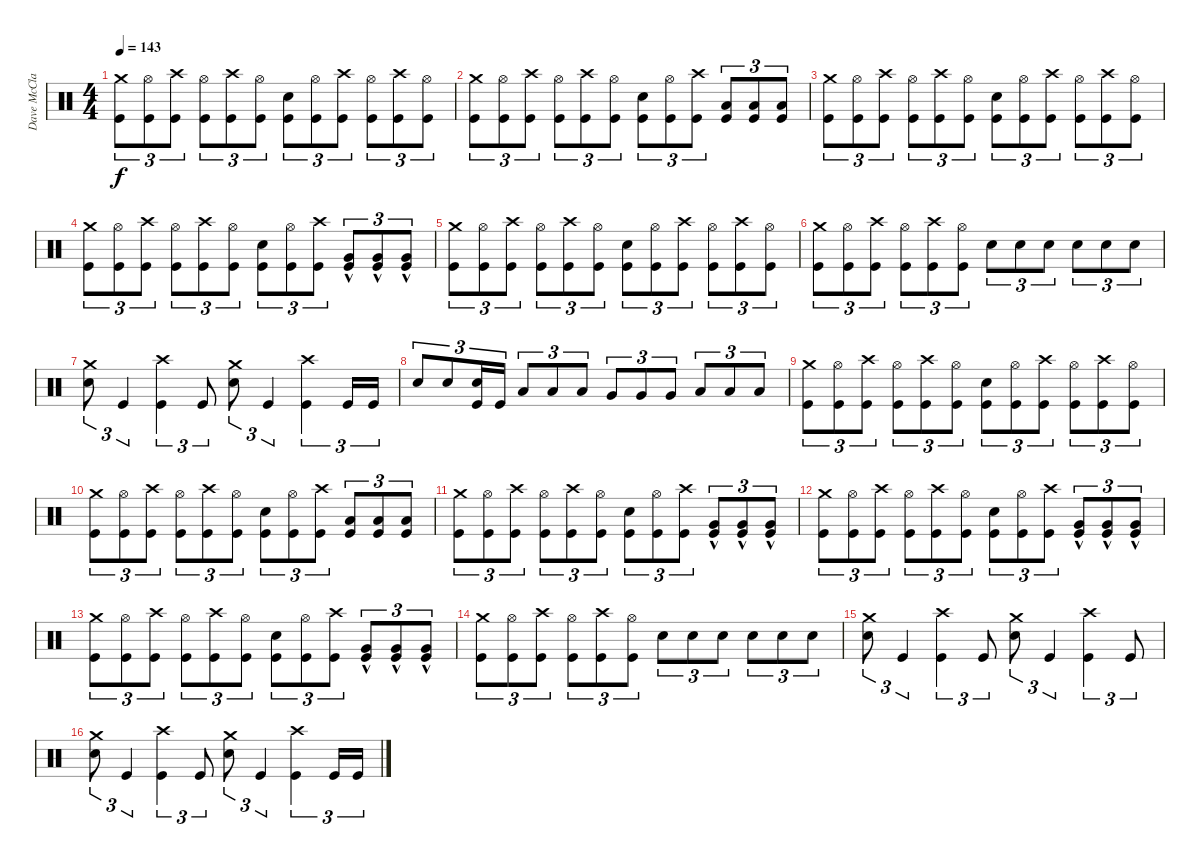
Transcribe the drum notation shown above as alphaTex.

\track ("Dave McClaine" "Dave McCla") {instrument percussion}
\staff {score}
\articulation defaults
\ts (4 4)
\tempo 143
\clef neutral
\ks c
("Kick (hit)" "Crash medium (hit)").8{tu (3 2) dy f} ("Kick (hit)" "Hi-Hat (open)").8{tu (3 2)} ("Kick (hit)" "Crash high (hit)").8{tu (3 2)} ("Kick (hit)" "Hi-Hat (open)").8{tu (3 2)} ("Kick (hit)" "Crash high (hit)").8{tu (3 2)} ("Kick (hit)" "Hi-Hat (open)").8{tu (3 2)} ("Kick (hit)" "Snare (hit) 2").8{tu (3 2)} ("Kick (hit)" "Hi-Hat (open)").8{tu (3 2)} ("Kick (hit)" "Crash high (hit)").8{tu (3 2)} ("Kick (hit)" "Hi-Hat (open)").8{tu (3 2)} ("Kick (hit)" "Crash high (hit)").8{tu (3 2)} ("Kick (hit)" "Hi-Hat (open)").8{tu (3 2)} |
("Kick (hit)" "Crash medium (hit)").8{tu (3 2)} ("Kick (hit)" "Hi-Hat (open)").8{tu (3 2)} ("Kick (hit)" "Crash high (hit)").8{tu (3 2)} ("Kick (hit)" "Hi-Hat (open)").8{tu (3 2)} ("Kick (hit)" "Crash high (hit)").8{tu (3 2)} ("Kick (hit)" "Hi-Hat (open)").8{tu (3 2)} ("Kick (hit)" "Snare (hit) 2").8{tu (3 2)} ("Kick (hit)" "Hi-Hat (open)").8{tu (3 2)} ("Kick (hit)" "Crash high (hit)").8{tu (3 2)} ("Kick (hit)" "Low Tom (hit)").8{tu (3 2)} ("Kick (hit)" "Low Tom (hit)").8{tu (3 2)} ("Kick (hit)" "Low Tom (hit)").8{tu (3 2)} |
("Kick (hit)" "Crash medium (hit)").8{tu (3 2)} ("Kick (hit)" "Hi-Hat (open)").8{tu (3 2)} ("Kick (hit)" "Crash high (hit)").8{tu (3 2)} ("Kick (hit)" "Hi-Hat (open)").8{tu (3 2)} ("Kick (hit)" "Crash high (hit)").8{tu (3 2)} ("Kick (hit)" "Hi-Hat (open)").8{tu (3 2)} ("Kick (hit)" "Snare (hit) 2").8{tu (3 2)} ("Kick (hit)" "Hi-Hat (open)").8{tu (3 2)} ("Kick (hit)" "Crash high (hit)").8{tu (3 2)} ("Kick (hit)" "Hi-Hat (open)").8{tu (3 2)} ("Kick (hit)" "Crash high (hit)").8{tu (3 2)} ("Kick (hit)" "Hi-Hat (open)").8{tu (3 2)} |
("Kick (hit)" "Crash medium (hit)").8{tu (3 2)} ("Kick (hit)" "Hi-Hat (open)").8{tu (3 2)} ("Kick (hit)" "Crash high (hit)").8{tu (3 2)} ("Kick (hit)" "Hi-Hat (open)").8{tu (3 2)} ("Kick (hit)" "Crash high (hit)").8{tu (3 2)} ("Kick (hit)" "Hi-Hat (open)").8{tu (3 2)} ("Kick (hit)" "Snare (hit) 2").8{tu (3 2)} ("Kick (hit)" "Hi-Hat (open)").8{tu (3 2)} ("Kick (hit)" "Crash high (hit)").8{tu (3 2)} ("Kick (hit)" "Very Low Tom (hit)"{hac}).8{tu (3 2)} ("Kick (hit)" "Very Low Tom (hit)"{hac}).8{tu (3 2)} ("Kick (hit)" "Very Low Tom (hit)"{hac}).8{tu (3 2)} |
("Kick (hit)" "Crash medium (hit)").8{tu (3 2)} ("Kick (hit)" "Hi-Hat (open)").8{tu (3 2)} ("Kick (hit)" "Crash high (hit)").8{tu (3 2)} ("Kick (hit)" "Hi-Hat (open)").8{tu (3 2)} ("Kick (hit)" "Crash high (hit)").8{tu (3 2)} ("Kick (hit)" "Hi-Hat (open)").8{tu (3 2)} ("Kick (hit)" "Snare (hit) 2").8{tu (3 2)} ("Kick (hit)" "Hi-Hat (open)").8{tu (3 2)} ("Kick (hit)" "Crash high (hit)").8{tu (3 2)} ("Kick (hit)" "Hi-Hat (open)").8{tu (3 2)} ("Kick (hit)" "Crash high (hit)").8{tu (3 2)} ("Kick (hit)" "Hi-Hat (open)").8{tu (3 2)} |
("Kick (hit)" "Crash medium (hit)").8{tu (3 2)} ("Kick (hit)" "Hi-Hat (open)").8{tu (3 2)} ("Kick (hit)" "Crash high (hit)").8{tu (3 2)} ("Kick (hit)" "Hi-Hat (open)").8{tu (3 2)} ("Kick (hit)" "Crash high (hit)").8{tu (3 2)} ("Kick (hit)" "Hi-Hat (open)").8{tu (3 2)} "Snare (hit) 2".8{tu (3 2)} "Snare (hit) 2".8{tu (3 2)} "Snare (hit) 2".8{tu (3 2)} "Snare (hit) 2".8{tu (3 2)} "Snare (hit) 2".8{tu (3 2)} "Snare (hit) 2".8{tu (3 2)} |
("Snare (hit) 2" "Crash medium (hit)").8{tu (3 2)} "Kick (hit)".4{tu (3 2)} ("Kick (hit)" "Crash high (hit)").4{tu (3 2)} "Kick (hit)".8{tu (3 2)} ("Snare (hit) 2" "Crash medium (hit)").8{tu (3 2)} "Kick (hit)".4{tu (3 2)} ("Kick (hit)" "Crash high (hit)").4{tu (3 2)} "Kick (hit)".16{tu (3 2)} "Kick (hit)".16{tu (3 2)} |
"Snare (hit) 2".8{tu (3 2)} "Snare (hit) 2".8{tu (3 2)} ("Snare (hit) 2" "Kick (hit)").16{tu (3 2)} "Kick (hit)".16{tu (3 2)} "Low Tom (hit)".8{tu (3 2)} "Low Tom (hit)".8{tu (3 2)} "Low Tom (hit)".8{tu (3 2)} "Very Low Tom (hit)".8{tu (3 2)} "Very Low Tom (hit)".8{tu (3 2)} "Very Low Tom (hit)".8{tu (3 2)} "Low Floor Tom (hit)".8{tu (3 2)} "Low Floor Tom (hit)".8{tu (3 2)} "Low Floor Tom (hit)".8{tu (3 2)} |
("Kick (hit)" "Crash medium (hit)").8{tu (3 2)} ("Kick (hit)" "Hi-Hat (open)").8{tu (3 2)} ("Kick (hit)" "Crash high (hit)").8{tu (3 2)} ("Kick (hit)" "Hi-Hat (open)").8{tu (3 2)} ("Kick (hit)" "Crash high (hit)").8{tu (3 2)} ("Kick (hit)" "Hi-Hat (open)").8{tu (3 2)} ("Kick (hit)" "Snare (hit) 2").8{tu (3 2)} ("Kick (hit)" "Hi-Hat (open)").8{tu (3 2)} ("Kick (hit)" "Crash high (hit)").8{tu (3 2)} ("Kick (hit)" "Hi-Hat (open)").8{tu (3 2)} ("Kick (hit)" "Crash high (hit)").8{tu (3 2)} ("Kick (hit)" "Hi-Hat (open)").8{tu (3 2)} |
("Kick (hit)" "Crash medium (hit)").8{tu (3 2)} ("Kick (hit)" "Hi-Hat (open)").8{tu (3 2)} ("Kick (hit)" "Crash high (hit)").8{tu (3 2)} ("Kick (hit)" "Hi-Hat (open)").8{tu (3 2)} ("Kick (hit)" "Crash high (hit)").8{tu (3 2)} ("Kick (hit)" "Hi-Hat (open)").8{tu (3 2)} ("Kick (hit)" "Snare (hit) 2").8{tu (3 2)} ("Kick (hit)" "Hi-Hat (open)").8{tu (3 2)} ("Kick (hit)" "Crash high (hit)").8{tu (3 2)} ("Kick (hit)" "Low Tom (hit)").8{tu (3 2)} ("Kick (hit)" "Low Tom (hit)").8{tu (3 2)} ("Kick (hit)" "Low Tom (hit)").8{tu (3 2)} |
("Kick (hit)" "Crash medium (hit)").8{tu (3 2)} ("Kick (hit)" "Hi-Hat (open)").8{tu (3 2)} ("Kick (hit)" "Crash high (hit)").8{tu (3 2)} ("Kick (hit)" "Hi-Hat (open)").8{tu (3 2)} ("Kick (hit)" "Crash high (hit)").8{tu (3 2)} ("Kick (hit)" "Hi-Hat (open)").8{tu (3 2)} ("Kick (hit)" "Snare (hit) 2").8{tu (3 2)} ("Kick (hit)" "Hi-Hat (open)").8{tu (3 2)} ("Kick (hit)" "Crash high (hit)").8{tu (3 2)} ("Kick (hit)" "Very Low Tom (hit)"{hac}).8{tu (3 2)} ("Kick (hit)" "Very Low Tom (hit)"{hac}).8{tu (3 2)} ("Kick (hit)" "Very Low Tom (hit)"{hac}).8{tu (3 2)} |
("Kick (hit)" "Crash medium (hit)").8{tu (3 2)} ("Kick (hit)" "Hi-Hat (open)").8{tu (3 2)} ("Kick (hit)" "Crash high (hit)").8{tu (3 2)} ("Kick (hit)" "Hi-Hat (open)").8{tu (3 2)} ("Kick (hit)" "Crash high (hit)").8{tu (3 2)} ("Kick (hit)" "Hi-Hat (open)").8{tu (3 2)} ("Kick (hit)" "Snare (hit) 2").8{tu (3 2)} ("Kick (hit)" "Hi-Hat (open)").8{tu (3 2)} ("Kick (hit)" "Crash high (hit)").8{tu (3 2)} ("Kick (hit)" "Very Low Tom (hit)"{hac}).8{tu (3 2)} ("Kick (hit)" "Very Low Tom (hit)"{hac}).8{tu (3 2)} ("Kick (hit)" "Very Low Tom (hit)"{hac}).8{tu (3 2)} |
("Kick (hit)" "Crash medium (hit)").8{tu (3 2)} ("Kick (hit)" "Hi-Hat (open)").8{tu (3 2)} ("Kick (hit)" "Crash high (hit)").8{tu (3 2)} ("Kick (hit)" "Hi-Hat (open)").8{tu (3 2)} ("Kick (hit)" "Crash high (hit)").8{tu (3 2)} ("Kick (hit)" "Hi-Hat (open)").8{tu (3 2)} ("Kick (hit)" "Snare (hit) 2").8{tu (3 2)} ("Kick (hit)" "Hi-Hat (open)").8{tu (3 2)} ("Kick (hit)" "Crash high (hit)").8{tu (3 2)} ("Kick (hit)" "Very Low Tom (hit)"{hac}).8{tu (3 2)} ("Kick (hit)" "Very Low Tom (hit)"{hac}).8{tu (3 2)} ("Kick (hit)" "Very Low Tom (hit)"{hac}).8{tu (3 2)} |
("Kick (hit)" "Crash medium (hit)").8{tu (3 2)} ("Kick (hit)" "Hi-Hat (open)").8{tu (3 2)} ("Kick (hit)" "Crash high (hit)").8{tu (3 2)} ("Kick (hit)" "Hi-Hat (open)").8{tu (3 2)} ("Kick (hit)" "Crash high (hit)").8{tu (3 2)} ("Kick (hit)" "Hi-Hat (open)").8{tu (3 2)} "Snare (hit) 2".8{tu (3 2)} "Snare (hit) 2".8{tu (3 2)} "Snare (hit) 2".8{tu (3 2)} "Snare (hit) 2".8{tu (3 2)} "Snare (hit) 2".8{tu (3 2)} "Snare (hit) 2".8{tu (3 2)} |
("Snare (hit) 2" "Crash medium (hit)").8{tu (3 2)} "Kick (hit)".4{tu (3 2)} ("Kick (hit)" "Crash high (hit)").4{tu (3 2)} "Kick (hit)".8{tu (3 2)} ("Snare (hit) 2" "Crash medium (hit)").8{tu (3 2)} "Kick (hit)".4{tu (3 2)} ("Kick (hit)" "Crash high (hit)").4{tu (3 2)} "Kick (hit)".8{tu (3 2)} |
("Snare (hit) 2" "Crash medium (hit)").8{tu (3 2)} "Kick (hit)".4{tu (3 2)} ("Kick (hit)" "Crash high (hit)").4{tu (3 2)} "Kick (hit)".8{tu (3 2)} ("Snare (hit) 2" "Crash medium (hit)").8{tu (3 2)} "Kick (hit)".4{tu (3 2)} ("Kick (hit)" "Crash high (hit)").4{tu (3 2)} "Kick (hit)".16{tu (3 2)} "Kick (hit)".16{tu (3 2)}
